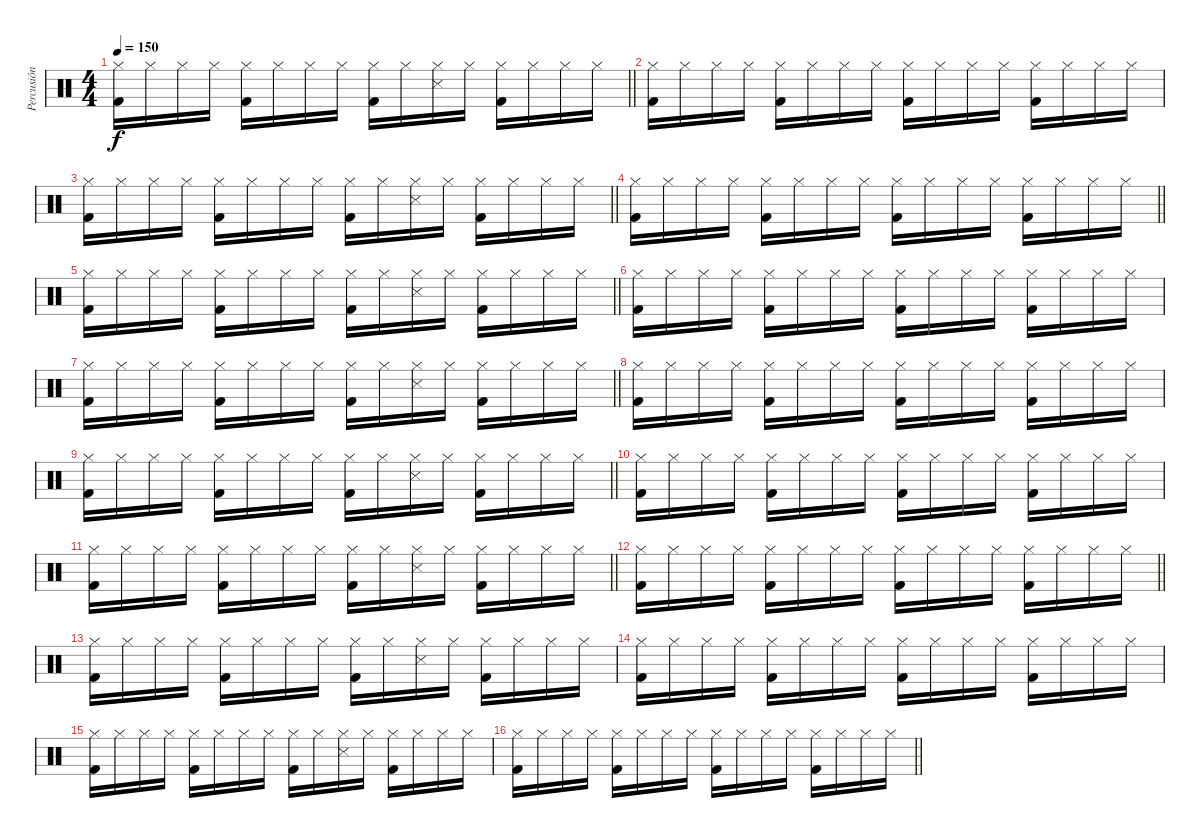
\track ("Percusión" "Percusión") {instrument percussion}
\staff {score}
\articulation defaults
\ts (4 4)
\tempo 150
\clef neutral
\barLineRight lightlight
\ks c
("Kick (hit) 2" "Hi-Hat (closed)").16{dy f} "Hi-Hat (closed)".16 "Hi-Hat (closed)".16 "Hi-Hat (closed)".16 ("Kick (hit) 2" "Hi-Hat (closed)").16 "Hi-Hat (closed)".16 "Hi-Hat (closed)".16 "Hi-Hat (closed)".16 ("Kick (hit) 2" "Hi-Hat (closed)").16 "Hi-Hat (closed)".16 ("Snare (side stick) 3" "Hi-Hat (closed)").16 "Hi-Hat (closed)".16 ("Kick (hit) 2" "Hi-Hat (closed)").16 "Hi-Hat (closed)".16 "Hi-Hat (closed)".16 "Hi-Hat (closed)".16 |
("Kick (hit) 2" "Hi-Hat (closed)").16 "Hi-Hat (closed)".16 "Hi-Hat (closed)".16 "Hi-Hat (closed)".16 ("Kick (hit) 2" "Hi-Hat (closed)").16 "Hi-Hat (closed)".16 "Hi-Hat (closed)".16 "Hi-Hat (closed)".16 ("Kick (hit) 2" "Hi-Hat (closed)").16 "Hi-Hat (closed)".16 "Hi-Hat (closed)".16 "Hi-Hat (closed)".16 ("Kick (hit) 2" "Hi-Hat (closed)").16 "Hi-Hat (closed)".16 "Hi-Hat (closed)".16 "Hi-Hat (closed)".16 |
\barLineRight lightlight
("Kick (hit) 2" "Hi-Hat (closed)").16 "Hi-Hat (closed)".16 "Hi-Hat (closed)".16 "Hi-Hat (closed)".16 ("Kick (hit) 2" "Hi-Hat (closed)").16 "Hi-Hat (closed)".16 "Hi-Hat (closed)".16 "Hi-Hat (closed)".16 ("Kick (hit) 2" "Hi-Hat (closed)").16 "Hi-Hat (closed)".16 ("Snare (side stick) 3" "Hi-Hat (closed)").16 "Hi-Hat (closed)".16 ("Kick (hit) 2" "Hi-Hat (closed)").16 "Hi-Hat (closed)".16 "Hi-Hat (closed)".16 "Hi-Hat (closed)".16 |
\barLineRight lightlight
("Kick (hit) 2" "Hi-Hat (closed)").16 "Hi-Hat (closed)".16 "Hi-Hat (closed)".16 "Hi-Hat (closed)".16 ("Kick (hit) 2" "Hi-Hat (closed)").16 "Hi-Hat (closed)".16 "Hi-Hat (closed)".16 "Hi-Hat (closed)".16 ("Kick (hit) 2" "Hi-Hat (closed)").16 "Hi-Hat (closed)".16 "Hi-Hat (closed)".16 "Hi-Hat (closed)".16 ("Kick (hit) 2" "Hi-Hat (closed)").16 "Hi-Hat (closed)".16 "Hi-Hat (closed)".16 "Hi-Hat (closed)".16 |
\barLineRight lightlight
("Kick (hit) 2" "Hi-Hat (closed)").16 "Hi-Hat (closed)".16 "Hi-Hat (closed)".16 "Hi-Hat (closed)".16 ("Kick (hit) 2" "Hi-Hat (closed)").16 "Hi-Hat (closed)".16 "Hi-Hat (closed)".16 "Hi-Hat (closed)".16 ("Kick (hit) 2" "Hi-Hat (closed)").16 "Hi-Hat (closed)".16 ("Snare (side stick) 3" "Hi-Hat (closed)").16 "Hi-Hat (closed)".16 ("Kick (hit) 2" "Hi-Hat (closed)").16 "Hi-Hat (closed)".16 "Hi-Hat (closed)".16 "Hi-Hat (closed)".16 |
("Kick (hit) 2" "Hi-Hat (closed)").16 "Hi-Hat (closed)".16 "Hi-Hat (closed)".16 "Hi-Hat (closed)".16 ("Kick (hit) 2" "Hi-Hat (closed)").16 "Hi-Hat (closed)".16 "Hi-Hat (closed)".16 "Hi-Hat (closed)".16 ("Kick (hit) 2" "Hi-Hat (closed)").16 "Hi-Hat (closed)".16 "Hi-Hat (closed)".16 "Hi-Hat (closed)".16 ("Kick (hit) 2" "Hi-Hat (closed)").16 "Hi-Hat (closed)".16 "Hi-Hat (closed)".16 "Hi-Hat (closed)".16 |
\barLineRight lightlight
("Kick (hit) 2" "Hi-Hat (closed)").16 "Hi-Hat (closed)".16 "Hi-Hat (closed)".16 "Hi-Hat (closed)".16 ("Kick (hit) 2" "Hi-Hat (closed)").16 "Hi-Hat (closed)".16 "Hi-Hat (closed)".16 "Hi-Hat (closed)".16 ("Kick (hit) 2" "Hi-Hat (closed)").16 "Hi-Hat (closed)".16 ("Snare (side stick) 3" "Hi-Hat (closed)").16 "Hi-Hat (closed)".16 ("Kick (hit) 2" "Hi-Hat (closed)").16 "Hi-Hat (closed)".16 "Hi-Hat (closed)".16 "Hi-Hat (closed)".16 |
("Kick (hit) 2" "Hi-Hat (closed)").16 "Hi-Hat (closed)".16 "Hi-Hat (closed)".16 "Hi-Hat (closed)".16 ("Kick (hit) 2" "Hi-Hat (closed)").16 "Hi-Hat (closed)".16 "Hi-Hat (closed)".16 "Hi-Hat (closed)".16 ("Kick (hit) 2" "Hi-Hat (closed)").16 "Hi-Hat (closed)".16 "Hi-Hat (closed)".16 "Hi-Hat (closed)".16 ("Kick (hit) 2" "Hi-Hat (closed)").16 "Hi-Hat (closed)".16 "Hi-Hat (closed)".16 "Hi-Hat (closed)".16 |
\barLineRight lightlight
("Kick (hit) 2" "Hi-Hat (closed)").16 "Hi-Hat (closed)".16 "Hi-Hat (closed)".16 "Hi-Hat (closed)".16 ("Kick (hit) 2" "Hi-Hat (closed)").16 "Hi-Hat (closed)".16 "Hi-Hat (closed)".16 "Hi-Hat (closed)".16 ("Kick (hit) 2" "Hi-Hat (closed)").16 "Hi-Hat (closed)".16 ("Snare (side stick) 3" "Hi-Hat (closed)").16 "Hi-Hat (closed)".16 ("Kick (hit) 2" "Hi-Hat (closed)").16 "Hi-Hat (closed)".16 "Hi-Hat (closed)".16 "Hi-Hat (closed)".16 |
("Kick (hit) 2" "Hi-Hat (closed)").16 "Hi-Hat (closed)".16 "Hi-Hat (closed)".16 "Hi-Hat (closed)".16 ("Kick (hit) 2" "Hi-Hat (closed)").16 "Hi-Hat (closed)".16 "Hi-Hat (closed)".16 "Hi-Hat (closed)".16 ("Kick (hit) 2" "Hi-Hat (closed)").16 "Hi-Hat (closed)".16 "Hi-Hat (closed)".16 "Hi-Hat (closed)".16 ("Kick (hit) 2" "Hi-Hat (closed)").16 "Hi-Hat (closed)".16 "Hi-Hat (closed)".16 "Hi-Hat (closed)".16 |
\barLineRight lightlight
("Kick (hit) 2" "Hi-Hat (closed)").16 "Hi-Hat (closed)".16 "Hi-Hat (closed)".16 "Hi-Hat (closed)".16 ("Kick (hit) 2" "Hi-Hat (closed)").16 "Hi-Hat (closed)".16 "Hi-Hat (closed)".16 "Hi-Hat (closed)".16 ("Kick (hit) 2" "Hi-Hat (closed)").16 "Hi-Hat (closed)".16 ("Snare (side stick) 3" "Hi-Hat (closed)").16 "Hi-Hat (closed)".16 ("Kick (hit) 2" "Hi-Hat (closed)").16 "Hi-Hat (closed)".16 "Hi-Hat (closed)".16 "Hi-Hat (closed)".16 |
\barLineRight lightlight
("Kick (hit) 2" "Hi-Hat (closed)").16 "Hi-Hat (closed)".16 "Hi-Hat (closed)".16 "Hi-Hat (closed)".16 ("Kick (hit) 2" "Hi-Hat (closed)").16 "Hi-Hat (closed)".16 "Hi-Hat (closed)".16 "Hi-Hat (closed)".16 ("Kick (hit) 2" "Hi-Hat (closed)").16 "Hi-Hat (closed)".16 "Hi-Hat (closed)".16 "Hi-Hat (closed)".16 ("Kick (hit) 2" "Hi-Hat (closed)").16 "Hi-Hat (closed)".16 "Hi-Hat (closed)".16 "Hi-Hat (closed)".16 |
("Kick (hit) 2" "Hi-Hat (closed)").16 "Hi-Hat (closed)".16 "Hi-Hat (closed)".16 "Hi-Hat (closed)".16 ("Kick (hit) 2" "Hi-Hat (closed)").16 "Hi-Hat (closed)".16 "Hi-Hat (closed)".16 "Hi-Hat (closed)".16 ("Kick (hit) 2" "Hi-Hat (closed)").16 "Hi-Hat (closed)".16 ("Snare (side stick) 3" "Hi-Hat (closed)").16 "Hi-Hat (closed)".16 ("Kick (hit) 2" "Hi-Hat (closed)").16 "Hi-Hat (closed)".16 "Hi-Hat (closed)".16 "Hi-Hat (closed)".16 |
("Kick (hit) 2" "Hi-Hat (closed)").16 "Hi-Hat (closed)".16 "Hi-Hat (closed)".16 "Hi-Hat (closed)".16 ("Kick (hit) 2" "Hi-Hat (closed)").16 "Hi-Hat (closed)".16 "Hi-Hat (closed)".16 "Hi-Hat (closed)".16 ("Kick (hit) 2" "Hi-Hat (closed)").16 "Hi-Hat (closed)".16 "Hi-Hat (closed)".16 "Hi-Hat (closed)".16 ("Kick (hit) 2" "Hi-Hat (closed)").16 "Hi-Hat (closed)".16 "Hi-Hat (closed)".16 "Hi-Hat (closed)".16 |
("Kick (hit) 2" "Hi-Hat (closed)").16 "Hi-Hat (closed)".16 "Hi-Hat (closed)".16 "Hi-Hat (closed)".16 ("Kick (hit) 2" "Hi-Hat (closed)").16 "Hi-Hat (closed)".16 "Hi-Hat (closed)".16 "Hi-Hat (closed)".16 ("Kick (hit) 2" "Hi-Hat (closed)").16 "Hi-Hat (closed)".16 ("Snare (side stick) 3" "Hi-Hat (closed)").16 "Hi-Hat (closed)".16 ("Kick (hit) 2" "Hi-Hat (closed)").16 "Hi-Hat (closed)".16 "Hi-Hat (closed)".16 "Hi-Hat (closed)".16 |
\barLineRight lightlight
("Kick (hit) 2" "Hi-Hat (closed)").16 "Hi-Hat (closed)".16 "Hi-Hat (closed)".16 "Hi-Hat (closed)".16 ("Kick (hit) 2" "Hi-Hat (closed)").16 "Hi-Hat (closed)".16 "Hi-Hat (closed)".16 "Hi-Hat (closed)".16 ("Kick (hit) 2" "Hi-Hat (closed)").16 "Hi-Hat (closed)".16 "Hi-Hat (closed)".16 "Hi-Hat (closed)".16 ("Kick (hit) 2" "Hi-Hat (closed)").16 "Hi-Hat (closed)".16 "Hi-Hat (closed)".16 "Hi-Hat (closed)".16
